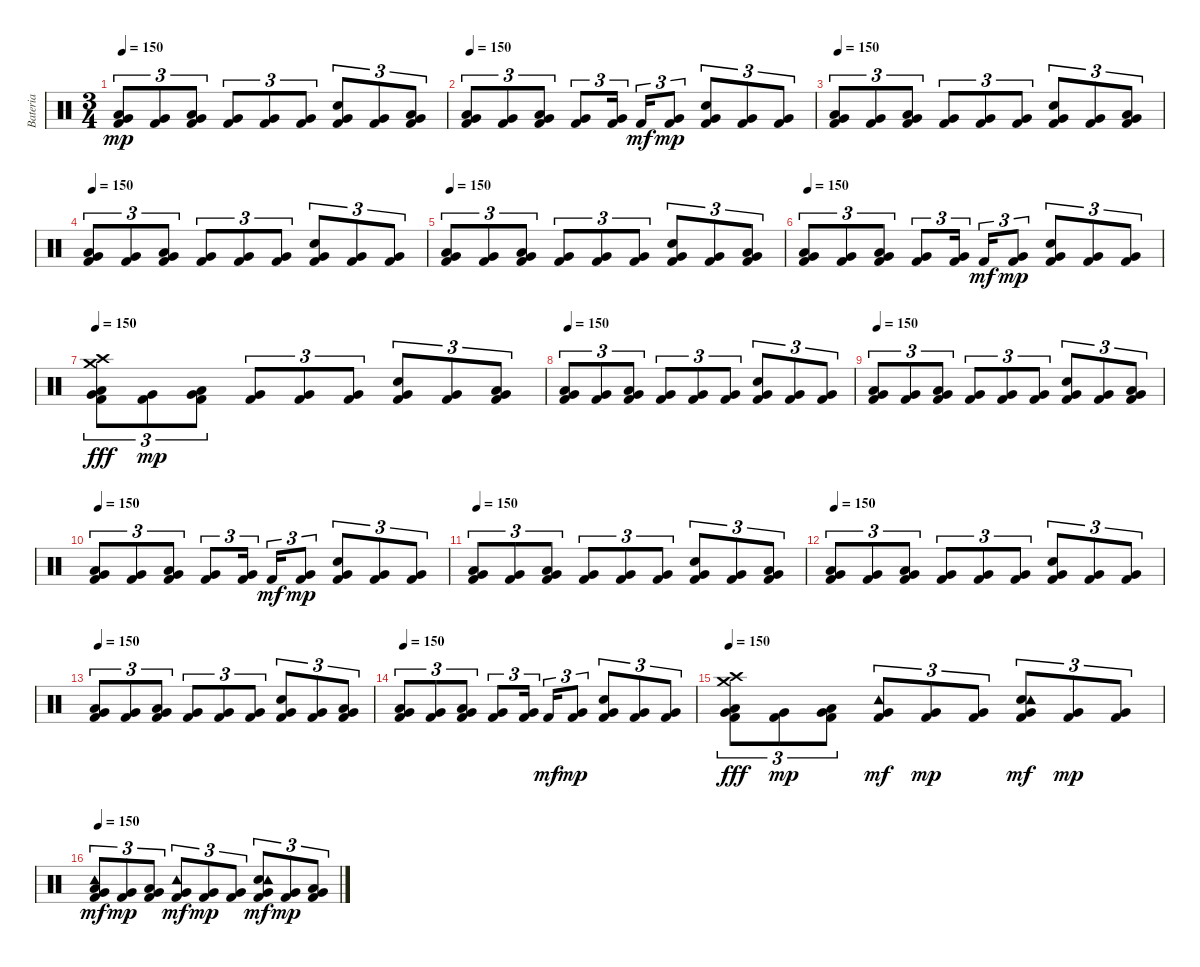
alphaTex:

\track ("Bateria" "Bateria") {instrument percussion}
\staff {score}
\articulation defaults
\ts (3 4)
\tempo 150
\clef neutral
\ks c
("Low Floor Tom (hit)" "Very Low Tom (hit)" "Kick (hit) 2").8{tu (3 2) dy mp} ("Very Low Tom (hit)" "Kick (hit) 2").8{tu (3 2)} ("Low Floor Tom (hit)" "Very Low Tom (hit)" "Kick (hit) 2").8{tu (3 2)} ("Very Low Tom (hit)" "Kick (hit) 2").8{tu (3 2)} ("Very Low Tom (hit)" "Kick (hit) 2").8{tu (3 2)} ("Very Low Tom (hit)" "Kick (hit) 2").8{tu (3 2)} ("Electric Snare (hit)" "Very Low Tom (hit)" "Kick (hit) 2").8{tu (3 2)} ("Very Low Tom (hit)" "Kick (hit) 2").8{tu (3 2)} ("Low Floor Tom (hit)" "Very Low Tom (hit)" "Kick (hit) 2").8{tu (3 2)} |
\tempo 150
("Low Floor Tom (hit)" "Very Low Tom (hit)" "Kick (hit) 2").8{tu (3 2)} ("Very Low Tom (hit)" "Kick (hit) 2").8{tu (3 2)} ("Low Floor Tom (hit)" "Very Low Tom (hit)" "Kick (hit) 2").8{tu (3 2)} ("Very Low Tom (hit)" "Kick (hit) 2").8{tu (3 2)} ("Very Low Tom (hit)" "Kick (hit) 2").16{tu (3 2) beam splitsecondary} "Kick (hit) 2".16{tu (3 2) dy mf} ("Very Low Tom (hit)" "Kick (hit) 2").8{tu (3 2) dy mp} ("Electric Snare (hit)" "Very Low Tom (hit)" "Kick (hit) 2").8{tu (3 2)} ("Very Low Tom (hit)" "Kick (hit) 2").8{tu (3 2)} ("Very Low Tom (hit)" "Kick (hit) 2").8{tu (3 2)} |
\tempo 150
("Low Floor Tom (hit)" "Very Low Tom (hit)" "Kick (hit) 2").8{tu (3 2)} ("Very Low Tom (hit)" "Kick (hit) 2").8{tu (3 2)} ("Low Floor Tom (hit)" "Very Low Tom (hit)" "Kick (hit) 2").8{tu (3 2)} ("Very Low Tom (hit)" "Kick (hit) 2").8{tu (3 2)} ("Very Low Tom (hit)" "Kick (hit) 2").8{tu (3 2)} ("Very Low Tom (hit)" "Kick (hit) 2").8{tu (3 2)} ("Electric Snare (hit)" "Very Low Tom (hit)" "Kick (hit) 2").8{tu (3 2)} ("Very Low Tom (hit)" "Kick (hit) 2").8{tu (3 2)} ("Low Floor Tom (hit)" "Very Low Tom (hit)" "Kick (hit) 2").8{tu (3 2)} |
\tempo 150
("Low Floor Tom (hit)" "Very Low Tom (hit)" "Kick (hit) 2").8{tu (3 2)} ("Very Low Tom (hit)" "Kick (hit) 2").8{tu (3 2)} ("Low Floor Tom (hit)" "Very Low Tom (hit)" "Kick (hit) 2").8{tu (3 2)} ("Very Low Tom (hit)" "Kick (hit) 2").8{tu (3 2)} ("Very Low Tom (hit)" "Kick (hit) 2").8{tu (3 2)} ("Very Low Tom (hit)" "Kick (hit) 2").8{tu (3 2)} ("Electric Snare (hit)" "Very Low Tom (hit)" "Kick (hit) 2").8{tu (3 2)} ("Very Low Tom (hit)" "Kick (hit) 2").8{tu (3 2)} ("Very Low Tom (hit)" "Kick (hit) 2").8{tu (3 2)} |
\tempo 150
("Low Floor Tom (hit)" "Very Low Tom (hit)" "Kick (hit) 2").8{tu (3 2)} ("Very Low Tom (hit)" "Kick (hit) 2").8{tu (3 2)} ("Low Floor Tom (hit)" "Very Low Tom (hit)" "Kick (hit) 2").8{tu (3 2)} ("Very Low Tom (hit)" "Kick (hit) 2").8{tu (3 2)} ("Very Low Tom (hit)" "Kick (hit) 2").8{tu (3 2)} ("Very Low Tom (hit)" "Kick (hit) 2").8{tu (3 2)} ("Electric Snare (hit)" "Very Low Tom (hit)" "Kick (hit) 2").8{tu (3 2)} ("Very Low Tom (hit)" "Kick (hit) 2").8{tu (3 2)} ("Low Floor Tom (hit)" "Very Low Tom (hit)" "Kick (hit) 2").8{tu (3 2)} |
\tempo 150
("Low Floor Tom (hit)" "Very Low Tom (hit)" "Kick (hit) 2").8{tu (3 2)} ("Very Low Tom (hit)" "Kick (hit) 2").8{tu (3 2)} ("Low Floor Tom (hit)" "Very Low Tom (hit)" "Kick (hit) 2").8{tu (3 2)} ("Very Low Tom (hit)" "Kick (hit) 2").8{tu (3 2)} ("Very Low Tom (hit)" "Kick (hit) 2").16{tu (3 2) beam splitsecondary} "Kick (hit) 2".16{tu (3 2) dy mf} ("Very Low Tom (hit)" "Kick (hit) 2").8{tu (3 2) dy mp} ("Electric Snare (hit)" "Very Low Tom (hit)" "Kick (hit) 2").8{tu (3 2)} ("Very Low Tom (hit)" "Kick (hit) 2").8{tu (3 2)} ("Very Low Tom (hit)" "Kick (hit) 2").8{tu (3 2)} |
\tempo 150
("Low Floor Tom (hit)" "Very Low Tom (hit)" "Kick (hit) 2" "Crash medium (hit)" "Crash high (hit)").8{tu (3 2) dy fff} ("Very Low Tom (hit)" "Kick (hit) 2").8{tu (3 2) dy mp} ("Low Floor Tom (hit)" "Very Low Tom (hit)" "Kick (hit) 2").8{tu (3 2)} ("Very Low Tom (hit)" "Kick (hit) 2").8{tu (3 2)} ("Very Low Tom (hit)" "Kick (hit) 2").8{tu (3 2)} ("Very Low Tom (hit)" "Kick (hit) 2").8{tu (3 2)} ("Electric Snare (hit)" "Very Low Tom (hit)" "Kick (hit) 2").8{tu (3 2)} ("Very Low Tom (hit)" "Kick (hit) 2").8{tu (3 2)} ("Low Floor Tom (hit)" "Very Low Tom (hit)" "Kick (hit) 2").8{tu (3 2)} |
\tempo 150
("Low Floor Tom (hit)" "Very Low Tom (hit)" "Kick (hit) 2").8{tu (3 2)} ("Very Low Tom (hit)" "Kick (hit) 2").8{tu (3 2)} ("Low Floor Tom (hit)" "Very Low Tom (hit)" "Kick (hit) 2").8{tu (3 2)} ("Very Low Tom (hit)" "Kick (hit) 2").8{tu (3 2)} ("Very Low Tom (hit)" "Kick (hit) 2").8{tu (3 2)} ("Very Low Tom (hit)" "Kick (hit) 2").8{tu (3 2)} ("Electric Snare (hit)" "Very Low Tom (hit)" "Kick (hit) 2").8{tu (3 2)} ("Very Low Tom (hit)" "Kick (hit) 2").8{tu (3 2)} ("Very Low Tom (hit)" "Kick (hit) 2").8{tu (3 2)} |
\tempo 150
("Low Floor Tom (hit)" "Very Low Tom (hit)" "Kick (hit) 2").8{tu (3 2)} ("Very Low Tom (hit)" "Kick (hit) 2").8{tu (3 2)} ("Low Floor Tom (hit)" "Very Low Tom (hit)" "Kick (hit) 2").8{tu (3 2)} ("Very Low Tom (hit)" "Kick (hit) 2").8{tu (3 2)} ("Very Low Tom (hit)" "Kick (hit) 2").8{tu (3 2)} ("Very Low Tom (hit)" "Kick (hit) 2").8{tu (3 2)} ("Electric Snare (hit)" "Very Low Tom (hit)" "Kick (hit) 2").8{tu (3 2)} ("Very Low Tom (hit)" "Kick (hit) 2").8{tu (3 2)} ("Low Floor Tom (hit)" "Very Low Tom (hit)" "Kick (hit) 2").8{tu (3 2)} |
\tempo 150
("Low Floor Tom (hit)" "Very Low Tom (hit)" "Kick (hit) 2").8{tu (3 2)} ("Very Low Tom (hit)" "Kick (hit) 2").8{tu (3 2)} ("Low Floor Tom (hit)" "Very Low Tom (hit)" "Kick (hit) 2").8{tu (3 2)} ("Very Low Tom (hit)" "Kick (hit) 2").8{tu (3 2)} ("Very Low Tom (hit)" "Kick (hit) 2").16{tu (3 2) beam splitsecondary} "Kick (hit) 2".16{tu (3 2) dy mf} ("Very Low Tom (hit)" "Kick (hit) 2").8{tu (3 2) dy mp} ("Electric Snare (hit)" "Very Low Tom (hit)" "Kick (hit) 2").8{tu (3 2)} ("Very Low Tom (hit)" "Kick (hit) 2").8{tu (3 2)} ("Very Low Tom (hit)" "Kick (hit) 2").8{tu (3 2)} |
\tempo 150
("Low Floor Tom (hit)" "Very Low Tom (hit)" "Kick (hit) 2").8{tu (3 2)} ("Very Low Tom (hit)" "Kick (hit) 2").8{tu (3 2)} ("Low Floor Tom (hit)" "Very Low Tom (hit)" "Kick (hit) 2").8{tu (3 2)} ("Very Low Tom (hit)" "Kick (hit) 2").8{tu (3 2)} ("Very Low Tom (hit)" "Kick (hit) 2").8{tu (3 2)} ("Very Low Tom (hit)" "Kick (hit) 2").8{tu (3 2)} ("Electric Snare (hit)" "Very Low Tom (hit)" "Kick (hit) 2").8{tu (3 2)} ("Very Low Tom (hit)" "Kick (hit) 2").8{tu (3 2)} ("Low Floor Tom (hit)" "Very Low Tom (hit)" "Kick (hit) 2").8{tu (3 2)} |
\tempo 150
("Low Floor Tom (hit)" "Very Low Tom (hit)" "Kick (hit) 2").8{tu (3 2)} ("Very Low Tom (hit)" "Kick (hit) 2").8{tu (3 2)} ("Low Floor Tom (hit)" "Very Low Tom (hit)" "Kick (hit) 2").8{tu (3 2)} ("Very Low Tom (hit)" "Kick (hit) 2").8{tu (3 2)} ("Very Low Tom (hit)" "Kick (hit) 2").8{tu (3 2)} ("Very Low Tom (hit)" "Kick (hit) 2").8{tu (3 2)} ("Electric Snare (hit)" "Very Low Tom (hit)" "Kick (hit) 2").8{tu (3 2)} ("Very Low Tom (hit)" "Kick (hit) 2").8{tu (3 2)} ("Very Low Tom (hit)" "Kick (hit) 2").8{tu (3 2)} |
\tempo 150
("Low Floor Tom (hit)" "Very Low Tom (hit)" "Kick (hit) 2").8{tu (3 2)} ("Very Low Tom (hit)" "Kick (hit) 2").8{tu (3 2)} ("Low Floor Tom (hit)" "Very Low Tom (hit)" "Kick (hit) 2").8{tu (3 2)} ("Very Low Tom (hit)" "Kick (hit) 2").8{tu (3 2)} ("Very Low Tom (hit)" "Kick (hit) 2").8{tu (3 2)} ("Very Low Tom (hit)" "Kick (hit) 2").8{tu (3 2)} ("Electric Snare (hit)" "Very Low Tom (hit)" "Kick (hit) 2").8{tu (3 2)} ("Very Low Tom (hit)" "Kick (hit) 2").8{tu (3 2)} ("Low Floor Tom (hit)" "Very Low Tom (hit)" "Kick (hit) 2").8{tu (3 2)} |
\tempo 150
("Low Floor Tom (hit)" "Very Low Tom (hit)" "Kick (hit) 2").8{tu (3 2)} ("Very Low Tom (hit)" "Kick (hit) 2").8{tu (3 2)} ("Low Floor Tom (hit)" "Very Low Tom (hit)" "Kick (hit) 2").8{tu (3 2)} ("Very Low Tom (hit)" "Kick (hit) 2").8{tu (3 2)} ("Very Low Tom (hit)" "Kick (hit) 2").16{tu (3 2) beam splitsecondary} "Kick (hit) 2".16{tu (3 2) dy mf} ("Very Low Tom (hit)" "Kick (hit) 2").8{tu (3 2) dy mp} ("Electric Snare (hit)" "Very Low Tom (hit)" "Kick (hit) 2").8{tu (3 2)} ("Very Low Tom (hit)" "Kick (hit) 2").8{tu (3 2)} ("Very Low Tom (hit)" "Kick (hit) 2").8{tu (3 2)} |
\tempo 150
("Low Floor Tom (hit)" "Very Low Tom (hit)" "Kick (hit) 2" "Crash high (hit)" "Crash medium (hit)").8{tu (3 2) dy fff} ("Very Low Tom (hit)" "Kick (hit) 2").8{tu (3 2) dy mp} ("Low Floor Tom (hit)" "Very Low Tom (hit)" "Kick (hit) 2").8{tu (3 2)} ("Very Low Tom (hit)" "Kick (hit) 2" "Tambourine (hit)").8{tu (3 2) dy mf} ("Very Low Tom (hit)" "Kick (hit) 2").8{tu (3 2) dy mp} ("Very Low Tom (hit)" "Kick (hit) 2").8{tu (3 2)} ("Electric Snare (hit)" "Very Low Tom (hit)" "Kick (hit) 2" "Tambourine (hit)").8{tu (3 2) dy mf} ("Very Low Tom (hit)" "Kick (hit) 2").8{tu (3 2) dy mp} ("Very Low Tom (hit)" "Kick (hit) 2").8{tu (3 2)} |
\tempo 150
("Low Floor Tom (hit)" "Very Low Tom (hit)" "Kick (hit) 2" "Tambourine (hit)").8{tu (3 2) dy mf} ("Very Low Tom (hit)" "Kick (hit) 2").8{tu (3 2) dy mp} ("Low Floor Tom (hit)" "Very Low Tom (hit)" "Kick (hit) 2").8{tu (3 2)} ("Very Low Tom (hit)" "Kick (hit) 2" "Tambourine (hit)").8{tu (3 2) dy mf} ("Very Low Tom (hit)" "Kick (hit) 2").8{tu (3 2) dy mp} ("Very Low Tom (hit)" "Kick (hit) 2").8{tu (3 2)} ("Electric Snare (hit)" "Very Low Tom (hit)" "Kick (hit) 2" "Tambourine (hit)").8{tu (3 2) dy mf} ("Very Low Tom (hit)" "Kick (hit) 2").8{tu (3 2) dy mp} ("Low Floor Tom (hit)" "Very Low Tom (hit)" "Kick (hit) 2").8{tu (3 2)}
